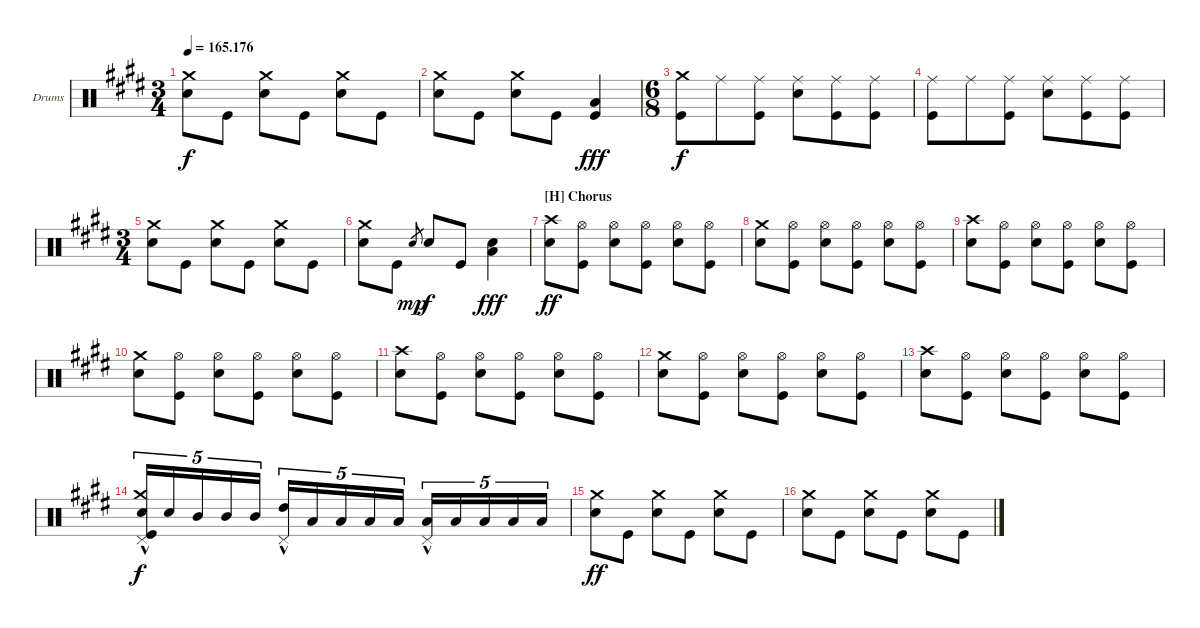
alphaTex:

\defaultSystemsLayout 4
\bracketExtendMode groupsimilarinstruments
\firstSystemTrackNameOrientation horizontal
\otherSystemsTrackNameOrientation horizontal
\track ("Dave Grohl (Drums)" "Drums") {multiBarRest instrument percussion}
\staff {score}
\articulation defaults
\ts (3 4)
\tempo
165.176
\accidentals auto
\clef neutral
\ottava regular
\simile none
\ks e
("Snare (hit) 2" "Crash medium (hit)").8{dy f} "Kick (hit)".8 ("Crash medium (hit)" "Snare (hit) 2").8 "Kick (hit)".8 ("Crash medium (hit)" "Snare (hit) 2").8 "Kick (hit)".8 |
("Snare (hit) 2" "Crash medium (hit)").8 "Kick (hit)".8 ("Crash medium (hit)" "Snare (hit) 2").8 "Kick (hit)".8 ("Low Tom (hit)" "Kick (hit)").4{dy fff} |
\ts (6 8)
("Kick (hit)" "Crash medium (hit)").8{dy f} "Ride (middle)".8 ("Ride (middle)" "Kick (hit)").8 ("Snare (hit) 2" "Ride (middle)").8 ("Ride (middle)" "Kick (hit)").8 ("Ride (middle)" "Kick (hit)").8 |
("Kick (hit)" "Ride (middle)").8 "Ride (middle)".8 ("Ride (middle)" "Kick (hit)").8 ("Snare (hit) 2" "Ride (middle)").8 ("Ride (middle)" "Kick (hit)").8 ("Ride (middle)" "Kick (hit)").8 |
\ts (3 4)
("Snare (hit) 2" "Crash medium (hit)").8 "Kick (hit)".8 ("Crash medium (hit)" "Snare (hit) 2").8 "Kick (hit)".8 ("Crash medium (hit)" "Snare (hit) 2").8 "Kick (hit)".8 |
("Snare (hit) 2" "Crash medium (hit)").8 "Kick (hit)".8 "Snare (hit) 2".8{gr dy mp} "Snare (hit) 2".8{dy f} "Kick (hit)".8 ("Low Tom (hit)" "Snare (hit) 2").4{dy fff} |
\section ("H" "Chorus")
("Snare (hit) 2" "Crash high (hit)").8{dy ff} ("Kick (hit)" "Hi-Hat (open)").8 ("Snare (hit) 2" "Hi-Hat (open)").8 ("Kick (hit)" "Hi-Hat (open)").8 ("Snare (hit) 2" "Hi-Hat (open)").8 ("Kick (hit)" "Hi-Hat (open)").8 |
("Snare (hit) 2" "Crash medium (hit)").8 ("Kick (hit)" "Hi-Hat (open)").8 ("Snare (hit) 2" "Hi-Hat (open)").8 ("Kick (hit)" "Hi-Hat (open)").8 ("Snare (hit) 2" "Hi-Hat (open)").8 ("Kick (hit)" "Hi-Hat (open)").8 |
("Snare (hit) 2" "Crash high (hit)").8 ("Kick (hit)" "Hi-Hat (open)").8 ("Snare (hit) 2" "Hi-Hat (open)").8 ("Kick (hit)" "Hi-Hat (open)").8 ("Snare (hit) 2" "Hi-Hat (open)").8 ("Kick (hit)" "Hi-Hat (open)").8 |
("Snare (hit) 2" "Crash medium (hit)").8 ("Kick (hit)" "Hi-Hat (open)").8 ("Snare (hit) 2" "Hi-Hat (open)").8 ("Kick (hit)" "Hi-Hat (open)").8 ("Snare (hit) 2" "Hi-Hat (open)").8 ("Kick (hit)" "Hi-Hat (open)").8 |
("Snare (hit) 2" "Crash high (hit)").8 ("Kick (hit)" "Hi-Hat (open)").8 ("Snare (hit) 2" "Hi-Hat (open)").8 ("Kick (hit)" "Hi-Hat (open)").8 ("Snare (hit) 2" "Hi-Hat (open)").8 ("Kick (hit)" "Hi-Hat (open)").8 |
("Snare (hit) 2" "Crash medium (hit)").8 ("Kick (hit)" "Hi-Hat (open)").8 ("Snare (hit) 2" "Hi-Hat (open)").8 ("Kick (hit)" "Hi-Hat (open)").8 ("Snare (hit) 2" "Hi-Hat (open)").8 ("Kick (hit)" "Hi-Hat (open)").8 |
("Snare (hit) 2" "Crash high (hit)").8 ("Kick (hit)" "Hi-Hat (open)").8 ("Snare (hit) 2" "Hi-Hat (open)").8 ("Kick (hit)" "Hi-Hat (open)").8 ("Snare (hit) 2" "Hi-Hat (open)").8 ("Kick (hit)" "Hi-Hat (open)").8 |
("Snare (hit) 2"{hac} "Crash medium (hit)" "Kick (hit)" "Pedal Hi-Hat (hit)").16{tu (5 4) dy f} "Snare (hit) 2".16{tu (5 4)} "Mid Tom (hit)".16{tu (5 4)} "Mid Tom (hit)".16{tu (5 4)} "Mid Tom (hit)".16{tu (5 4)} ("High Tom (hit)"{hac} "Pedal Hi-Hat (hit)").16{tu (5 4)} "Low Tom (hit)".16{tu (5 4)} "Low Tom (hit)".16{tu (5 4)} "Low Tom (hit)".16{tu (5 4)} "Low Tom (hit)".16{tu (5 4)} ("Low Tom (hit)"{hac} "Pedal Hi-Hat (hit)").16{tu (5 4)} "Low Tom (hit)".16{tu (5 4)} "Low Tom (hit)".16{tu (5 4)} "Low Tom (hit)".16{tu (5 4)} "Low Tom (hit)".16{tu (5 4)} |
("Snare (hit) 2" "Crash medium (hit)").8{dy ff} "Kick (hit)".8 ("Snare (hit) 2" "Crash medium (hit)").8 "Kick (hit)".8 ("Snare (hit) 2" "Crash medium (hit)").8 "Kick (hit)".8 |
("Snare (hit) 2" "Crash medium (hit)").8 "Kick (hit)".8 ("Snare (hit) 2" "Crash medium (hit)").8 "Kick (hit)".8 ("Snare (hit) 2" "Crash medium (hit)").8 "Kick (hit)".8
